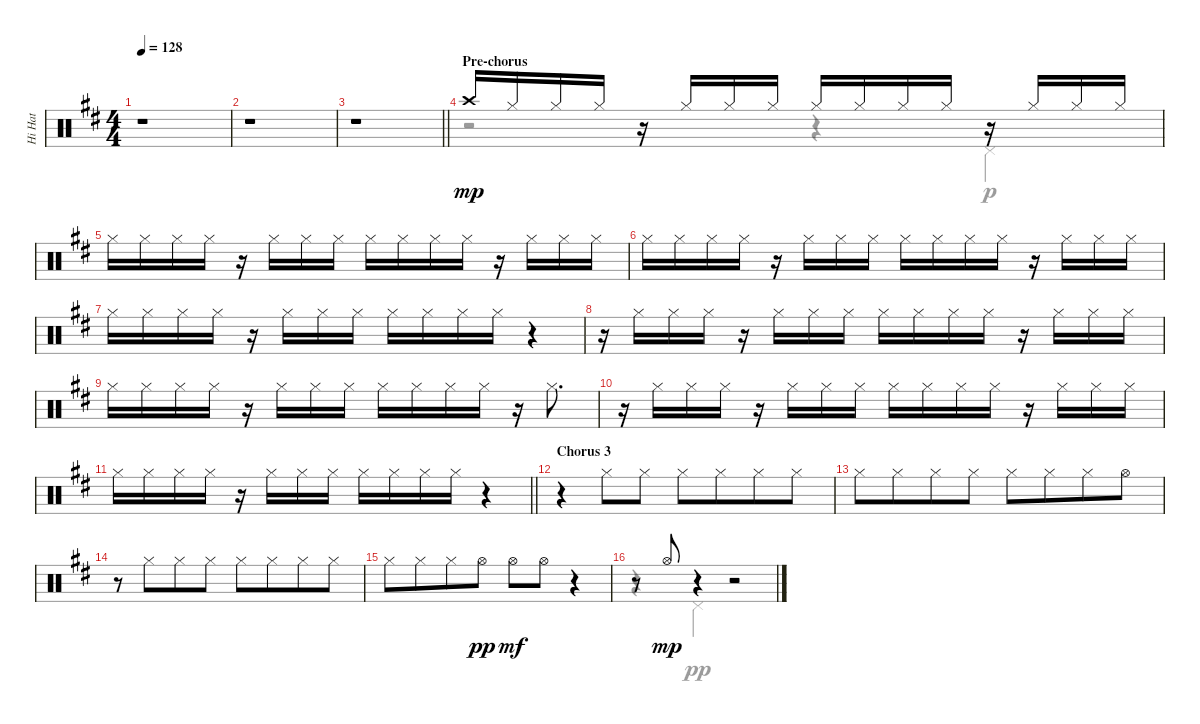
\track ("Hi Hat" "Hi Hat") {instrument percussion}
\staff {score}
\articulation defaults
\voice
\ts (4 4)
\tempo 128
\clef neutral
\ks bminor
r.1{dy mp} |
r.1 |
\barLineRight lightlight
r.1 |
\section ("" "Pre-chorus")
"Crash high (hit)".16 "Hi-Hat (closed)".16 "Hi-Hat (closed)".16 "Hi-Hat (closed)".16 r.16 "Hi-Hat (closed)".16 "Hi-Hat (closed)".16 "Hi-Hat (closed)".16 "Hi-Hat (closed)".16 "Hi-Hat (closed)".16 "Hi-Hat (closed)".16 "Hi-Hat (closed)".16 r.16 "Hi-Hat (closed)".16 "Hi-Hat (closed)".16 "Hi-Hat (closed)".16 |
"Hi-Hat (closed)".16 "Hi-Hat (closed)".16 "Hi-Hat (closed)".16 "Hi-Hat (closed)".16 r.16 "Hi-Hat (closed)".16 "Hi-Hat (closed)".16 "Hi-Hat (closed)".16 "Hi-Hat (closed)".16 "Hi-Hat (closed)".16 "Hi-Hat (closed)".16 "Hi-Hat (closed)".16 r.16 "Hi-Hat (closed)".16 "Hi-Hat (closed)".16 "Hi-Hat (closed)".16 |
"Hi-Hat (closed)".16 "Hi-Hat (closed)".16 "Hi-Hat (closed)".16 "Hi-Hat (closed)".16 r.16 "Hi-Hat (closed)".16 "Hi-Hat (closed)".16 "Hi-Hat (closed)".16 "Hi-Hat (closed)".16 "Hi-Hat (closed)".16 "Hi-Hat (closed)".16 "Hi-Hat (closed)".16 r.16 "Hi-Hat (closed)".16 "Hi-Hat (closed)".16 "Hi-Hat (closed)".16 |
"Hi-Hat (closed)".16 "Hi-Hat (closed)".16 "Hi-Hat (closed)".16 "Hi-Hat (closed)".16 r.16 "Hi-Hat (closed)".16 "Hi-Hat (closed)".16 "Hi-Hat (closed)".16 "Hi-Hat (closed)".16 "Hi-Hat (closed)".16 "Hi-Hat (closed)".16 "Hi-Hat (closed)".16 r.4 |
r.16 "Hi-Hat (closed)".16 "Hi-Hat (closed)".16 "Hi-Hat (closed)".16 r.16 "Hi-Hat (closed)".16 "Hi-Hat (closed)".16 "Hi-Hat (closed)".16 "Hi-Hat (closed)".16 "Hi-Hat (closed)".16 "Hi-Hat (closed)".16 "Hi-Hat (closed)".16 r.16 "Hi-Hat (closed)".16 "Hi-Hat (closed)".16 "Hi-Hat (closed)".16 |
"Hi-Hat (closed)".16 "Hi-Hat (closed)".16 "Hi-Hat (closed)".16 "Hi-Hat (closed)".16 r.16 "Hi-Hat (closed)".16 "Hi-Hat (closed)".16 "Hi-Hat (closed)".16 "Hi-Hat (closed)".16 "Hi-Hat (closed)".16 "Hi-Hat (closed)".16 "Hi-Hat (closed)".16 r.16 "Hi-Hat (closed)".8{d} |
r.16 "Hi-Hat (closed)".16 "Hi-Hat (closed)".16 "Hi-Hat (closed)".16 r.16 "Hi-Hat (closed)".16 "Hi-Hat (closed)".16 "Hi-Hat (closed)".16 "Hi-Hat (closed)".16 "Hi-Hat (closed)".16 "Hi-Hat (closed)".16 "Hi-Hat (closed)".16 r.16 "Hi-Hat (closed)".16 "Hi-Hat (closed)".16 "Hi-Hat (closed)".16 |
\barLineRight lightlight "Hi-Hat (closed)".16 "Hi-Hat (closed)".16 "Hi-Hat (closed)".16 "Hi-Hat (closed)".16
r.16 "Hi-Hat (closed)".16 "Hi-Hat (closed)".16 "Hi-Hat (closed)".16 "Hi-Hat (closed)".16 "Hi-Hat (closed)".16 "Hi-Hat (closed)".16 "Hi-Hat (closed)".16 r.4 |
\section ("" "Chorus 3")
r.4 "Hi-Hat (closed)".8 "Hi-Hat (closed)".8 "Hi-Hat (closed)".8 "Hi-Hat (closed)".8{beam merge} "Hi-Hat (closed)".8 "Hi-Hat (closed)".8 |
"Hi-Hat (closed)".8 "Hi-Hat (closed)".8{beam merge} "Hi-Hat (closed)".8 "Hi-Hat (closed)".8 "Hi-Hat (closed)".8 "Hi-Hat (closed)".8{beam merge} "Hi-Hat (closed)".8 "Hi-Hat (open)".8 |
r.8 "Hi-Hat (closed)".8{beam merge} "Hi-Hat (closed)".8 "Hi-Hat (closed)".8 "Hi-Hat (closed)".8 "Hi-Hat (closed)".8{beam merge} "Hi-Hat (closed)".8 "Hi-Hat (closed)".8 |
"Hi-Hat (closed)".8 "Hi-Hat (closed)".8{beam merge} "Hi-Hat (closed)".8 "Hi-Hat (open)".8{dy pp} "Hi-Hat (open)".8{dy mf} "Hi-Hat (open)".8 r.4 |
r.8 "Hi-Hat (open)".8{dy mp} r.4 r.2
\voice
\clef neutral
\ottava regular
\simile none
\ks bminor
|
|
\barLineRight lightlight
|
r.2 r.4 "Pedal Hi-Hat (hit)".4{dy p} |
|
|
|
|
|
|
\barLineRight lightlight
|
|
|
|
|
r.4 "Pedal Hi-Hat (hit)".4{dy pp} r.2
